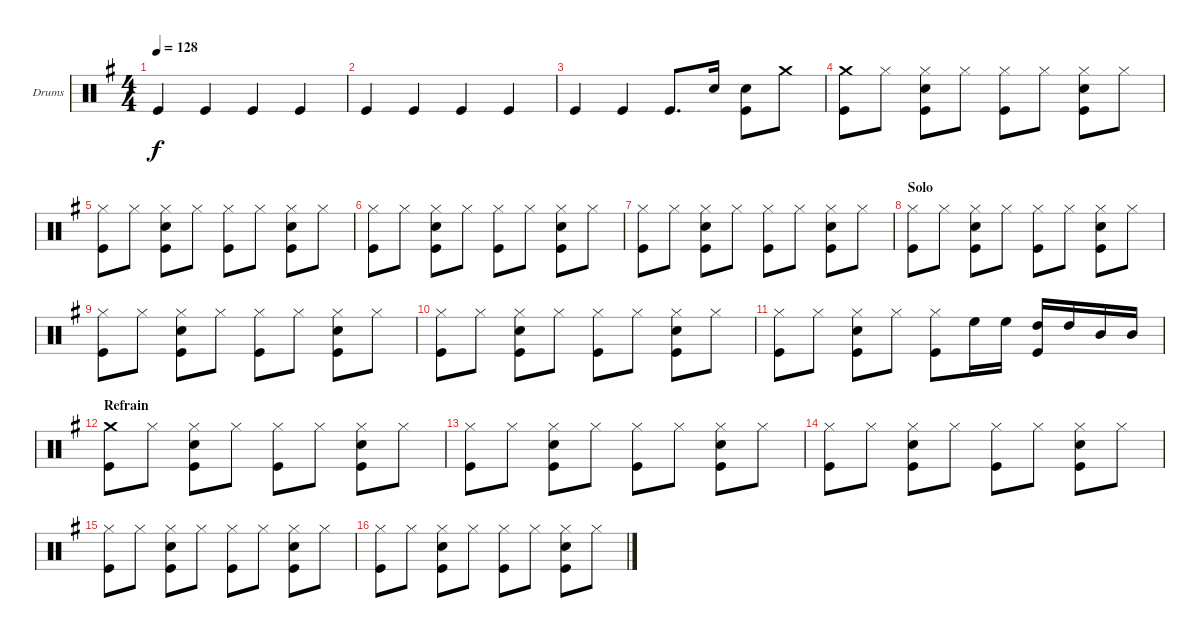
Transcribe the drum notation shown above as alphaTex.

\bracketExtendMode groupsimilarinstruments
\firstSystemTrackNameOrientation horizontal
\otherSystemsTrackNameOrientation horizontal
\track ("Drumkit" "Drums") {multiBarRest instrument percussion}
\staff {score}
\articulation defaults
\ts (4 4)
\tempo 128
\clef neutral
\ks eminor "Kick (hit)".4{dy f} "Kick (hit)".4 "Kick (hit)".4 "Kick (hit)".4
|
"Kick (hit)".4 "Kick (hit)".4 "Kick (hit)".4 "Kick (hit)".4 |
"Kick (hit)".4 "Kick (hit)".4 "Kick (hit)".8{d} "Snare (hit) 2".16 ("Snare (hit) 2" "Kick (hit)").8 "Crash medium (hit)".8 |
("Crash medium (hit)" "Kick (hit)").8 "Hi-Hat (closed)".8 ("Hi-Hat (closed)" "Snare (hit) 2" "Kick (hit)").8 "Hi-Hat (closed)".8 ("Hi-Hat (closed)" "Kick (hit)").8 "Hi-Hat (closed)".8 ("Hi-Hat (closed)" "Snare (hit) 2" "Kick (hit)").8 "Hi-Hat (closed)".8 |
("Hi-Hat (closed)" "Kick (hit)").8 "Hi-Hat (closed)".8 ("Hi-Hat (closed)" "Snare (hit) 2" "Kick (hit)").8 "Hi-Hat (closed)".8 ("Hi-Hat (closed)" "Kick (hit)").8 "Hi-Hat (closed)".8 ("Hi-Hat (closed)" "Snare (hit) 2" "Kick (hit)").8 "Hi-Hat (closed)".8 |
("Hi-Hat (closed)" "Kick (hit)").8 "Hi-Hat (closed)".8 ("Hi-Hat (closed)" "Snare (hit) 2" "Kick (hit)").8 "Hi-Hat (closed)".8 ("Hi-Hat (closed)" "Kick (hit)").8 "Hi-Hat (closed)".8 ("Hi-Hat (closed)" "Snare (hit) 2" "Kick (hit)").8 "Hi-Hat (closed)".8 |
("Hi-Hat (closed)" "Kick (hit)").8 "Hi-Hat (closed)".8 ("Hi-Hat (closed)" "Snare (hit) 2" "Kick (hit)").8 "Hi-Hat (closed)".8 ("Hi-Hat (closed)" "Kick (hit)").8 "Hi-Hat (closed)".8 ("Hi-Hat (closed)" "Snare (hit) 2" "Kick (hit)").8 "Hi-Hat (closed)".8 |
\section ("" "Solo")
("Hi-Hat (closed)" "Kick (hit)").8 "Hi-Hat (closed)".8 ("Hi-Hat (closed)" "Snare (hit) 2" "Kick (hit)").8 "Hi-Hat (closed)".8 ("Hi-Hat (closed)" "Kick (hit)").8 "Hi-Hat (closed)".8 ("Hi-Hat (closed)" "Snare (hit) 2" "Kick (hit)").8 "Hi-Hat (closed)".8 |
("Hi-Hat (closed)" "Kick (hit)").8 "Hi-Hat (closed)".8 ("Hi-Hat (closed)" "Snare (hit) 2" "Kick (hit)").8 "Hi-Hat (closed)".8 ("Hi-Hat (closed)" "Kick (hit)").8 "Hi-Hat (closed)".8 ("Hi-Hat (closed)" "Snare (hit) 2" "Kick (hit)").8 "Hi-Hat (closed)".8 |
("Hi-Hat (closed)" "Kick (hit)").8 "Hi-Hat (closed)".8 ("Hi-Hat (closed)" "Snare (hit) 2" "Kick (hit)").8 "Hi-Hat (closed)".8 ("Hi-Hat (closed)" "Kick (hit)").8 "Hi-Hat (closed)".8 ("Hi-Hat (closed)" "Snare (hit) 2" "Kick (hit)").8 "Hi-Hat (closed)".8 |
("Hi-Hat (closed)" "Kick (hit)").8 "Hi-Hat (closed)".8 ("Hi-Hat (closed)" "Snare (hit) 2" "Kick (hit)").8 "Hi-Hat (closed)".8 ("Hi-Hat (closed)" "Kick (hit)").8 "High Floor Tom (hit)".16 "High Floor Tom (hit)".16 ("High Tom (hit)" "Kick (hit)").16 "High Tom (hit)".16 "Mid Tom (hit)".16 "Mid Tom (hit)".16 |
\section ("" "Refrain")
("Crash medium (hit)" "Kick (hit)").8 "Hi-Hat (closed)".8 ("Hi-Hat (closed)" "Snare (hit) 2" "Kick (hit)").8 "Hi-Hat (closed)".8 ("Hi-Hat (closed)" "Kick (hit)").8 "Hi-Hat (closed)".8 ("Hi-Hat (closed)" "Snare (hit) 2" "Kick (hit)").8 "Hi-Hat (closed)".8 |
("Hi-Hat (closed)" "Kick (hit)").8 "Hi-Hat (closed)".8 ("Hi-Hat (closed)" "Snare (hit) 2" "Kick (hit)").8 "Hi-Hat (closed)".8 ("Hi-Hat (closed)" "Kick (hit)").8 "Hi-Hat (closed)".8 ("Hi-Hat (closed)" "Snare (hit) 2" "Kick (hit)").8 "Hi-Hat (closed)".8 |
("Hi-Hat (closed)" "Kick (hit)").8 "Hi-Hat (closed)".8 ("Hi-Hat (closed)" "Snare (hit) 2" "Kick (hit)").8 "Hi-Hat (closed)".8 ("Hi-Hat (closed)" "Kick (hit)").8 "Hi-Hat (closed)".8 ("Hi-Hat (closed)" "Snare (hit) 2" "Kick (hit)").8 "Hi-Hat (closed)".8 |
("Hi-Hat (closed)" "Kick (hit)").8 "Hi-Hat (closed)".8 ("Hi-Hat (closed)" "Snare (hit) 2" "Kick (hit)").8 "Hi-Hat (closed)".8 ("Hi-Hat (closed)" "Kick (hit)").8 "Hi-Hat (closed)".8 ("Hi-Hat (closed)" "Snare (hit) 2" "Kick (hit)").8 "Hi-Hat (closed)".8 |
("Hi-Hat (closed)" "Kick (hit)").8 "Hi-Hat (closed)".8 ("Hi-Hat (closed)" "Snare (hit) 2" "Kick (hit)").8 "Hi-Hat (closed)".8 ("Hi-Hat (closed)" "Kick (hit)").8 "Hi-Hat (closed)".8 ("Hi-Hat (closed)" "Snare (hit) 2" "Kick (hit)").8 "Hi-Hat (closed)".8
